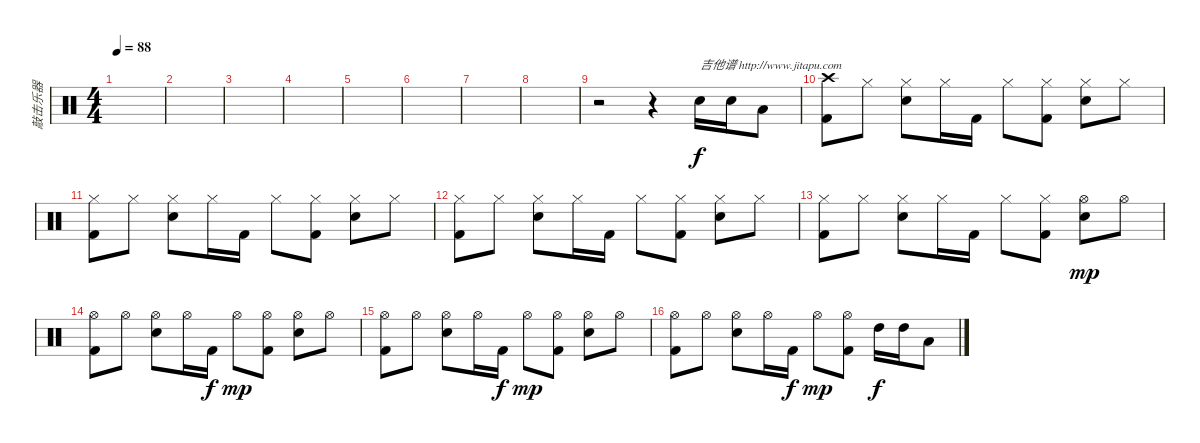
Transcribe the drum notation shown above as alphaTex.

\track ("敲击乐器" "敲击乐器") {instrument percussion}
\staff {score}
\articulation defaults
\ts (4 4)
\tempo 88
\clef neutral
\ks c
|
|
|
|
|
|
|
|
r.2 r.4 "Electric Snare (hit)".16{txt "吉他谱 http://www.jitapu.com"} "Electric Snare (hit)".16 "Low Tom (hit)".8 |
("Crash high (hit)" "Kick (hit) 2").8 "Hi-Hat (closed)".8 ("Hi-Hat (closed)" "Electric Snare (hit)").8 "Hi-Hat (closed)".16 "Kick (hit) 2".16 "Hi-Hat (closed)".8 ("Hi-Hat (closed)" "Kick (hit) 2").8 ("Hi-Hat (closed)" "Electric Snare (hit)").8 "Hi-Hat (closed)".8 |
("Hi-Hat (closed)" "Kick (hit) 2").8 "Hi-Hat (closed)".8 ("Hi-Hat (closed)" "Electric Snare (hit)").8 "Hi-Hat (closed)".16 "Kick (hit) 2".16 "Hi-Hat (closed)".8 ("Hi-Hat (closed)" "Kick (hit) 2").8 ("Hi-Hat (closed)" "Electric Snare (hit)").8 "Hi-Hat (closed)".8 |
("Hi-Hat (closed)" "Kick (hit) 2").8 "Hi-Hat (closed)".8 ("Hi-Hat (closed)" "Electric Snare (hit)").8 "Hi-Hat (closed)".16 "Kick (hit) 2".16 "Hi-Hat (closed)".8 ("Hi-Hat (closed)" "Kick (hit) 2").8 ("Hi-Hat (closed)" "Electric Snare (hit)").8 "Hi-Hat (closed)".8 |
("Hi-Hat (closed)" "Kick (hit) 2").8 "Hi-Hat (closed)".8 ("Hi-Hat (closed)" "Electric Snare (hit)").8 "Hi-Hat (closed)".16 "Kick (hit) 2".16 "Hi-Hat (closed)".8 ("Hi-Hat (closed)" "Kick (hit) 2").8 ("Hi-Hat (open)" "Electric Snare (hit)").8{dy mp} "Hi-Hat (open)".8 |
("Hi-Hat (open)" "Kick (hit) 2").8 "Hi-Hat (open)".8 ("Hi-Hat (open)" "Electric Snare (hit)").8 "Hi-Hat (open)".16 "Kick (hit) 2".16{dy f} "Hi-Hat (open)".8{dy mp} ("Hi-Hat (open)" "Kick (hit) 2").8 ("Hi-Hat (open)" "Electric Snare (hit)").8 "Hi-Hat (open)".8 |
("Hi-Hat (open)" "Kick (hit) 2").8 "Hi-Hat (open)".8 ("Hi-Hat (open)" "Electric Snare (hit)").8 "Hi-Hat (open)".16 "Kick (hit) 2".16{dy f} "Hi-Hat (open)".8{dy mp} ("Hi-Hat (open)" "Kick (hit) 2").8 ("Hi-Hat (open)" "Electric Snare (hit)").8 "Hi-Hat (open)".8 |
("Hi-Hat (open)" "Kick (hit) 2").8 "Hi-Hat (open)".8 ("Hi-Hat (open)" "Electric Snare (hit)").8 "Hi-Hat (open)".16 "Kick (hit) 2".16{dy f} "Hi-Hat (open)".8{dy mp} ("Hi-Hat (open)" "Kick (hit) 2").8 "High Tom (hit)".16{dy f} "High Tom (hit)".16 "Low Tom (hit)".8
